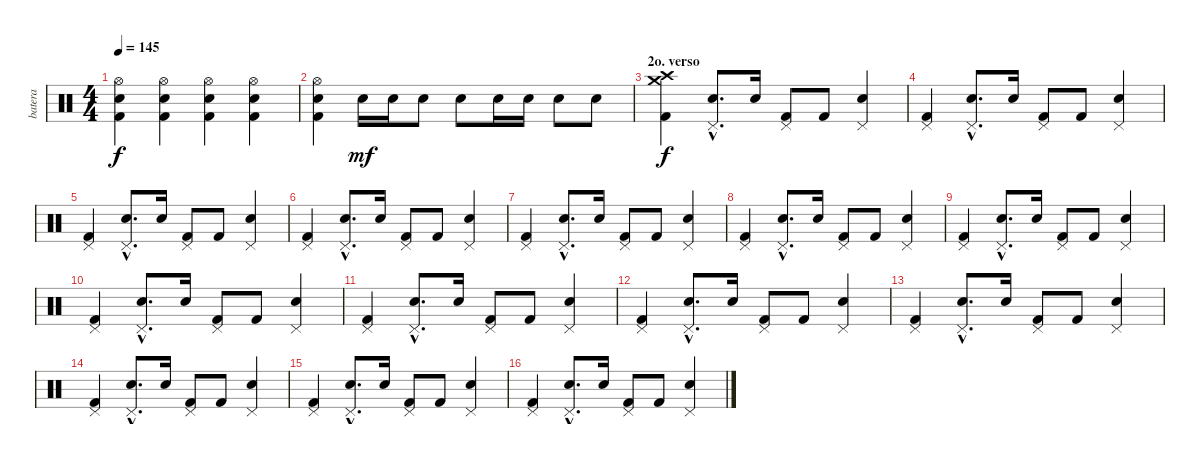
\track ("batera" "batera") {instrument percussion}
\staff {score}
\articulation defaults
\ts (4 4)
\tempo 145
\clef neutral
\ks c
("Snare (hit) 2" "Kick (hit) 2" "Hi-Hat (open)").4{dy f} ("Snare (hit) 2" "Kick (hit) 2" "Hi-Hat (open)").4 ("Snare (hit) 2" "Kick (hit) 2" "Hi-Hat (open)").4 ("Snare (hit) 2" "Kick (hit) 2" "Hi-Hat (open)").4 |
("Snare (hit) 2" "Kick (hit) 2" "Hi-Hat (open)").4 "Electric Snare (hit)".16{dy mf} "Electric Snare (hit)".16 "Electric Snare (hit)".8 "Electric Snare (hit)".8 "Electric Snare (hit)".16 "Electric Snare (hit)".16 "Electric Snare (hit)".8 "Electric Snare (hit)".8 |
\section ("" "2o. verso")
("Crash high (hit)" "Crash medium (hit)" "Kick (hit) 2").4{dy f} ("Snare (hit) 2"{hac} "Pedal Hi-Hat (hit)"{hac}).8{d} "Snare (hit) 2".16 ("Kick (hit) 2" "Pedal Hi-Hat (hit)").8 "Kick (hit) 2".8 ("Snare (hit) 2" "Pedal Hi-Hat (hit)").4 |
("Kick (hit) 2" "Pedal Hi-Hat (hit)").4 ("Snare (hit) 2"{hac} "Pedal Hi-Hat (hit)"{hac}).8{d} "Snare (hit) 2".16 ("Kick (hit) 2" "Pedal Hi-Hat (hit)").8 "Kick (hit) 2".8 ("Snare (hit) 2" "Pedal Hi-Hat (hit)").4 |
("Kick (hit) 2" "Pedal Hi-Hat (hit)").4 ("Snare (hit) 2"{hac} "Pedal Hi-Hat (hit)"{hac}).8{d} "Snare (hit) 2".16 ("Kick (hit) 2" "Pedal Hi-Hat (hit)").8 "Kick (hit) 2".8 ("Snare (hit) 2" "Pedal Hi-Hat (hit)").4 |
("Kick (hit) 2" "Pedal Hi-Hat (hit)").4 ("Snare (hit) 2"{hac} "Pedal Hi-Hat (hit)"{hac}).8{d} "Snare (hit) 2".16 ("Kick (hit) 2" "Pedal Hi-Hat (hit)").8 "Kick (hit) 2".8 ("Snare (hit) 2" "Pedal Hi-Hat (hit)").4 |
("Kick (hit) 2" "Pedal Hi-Hat (hit)").4 ("Snare (hit) 2"{hac} "Pedal Hi-Hat (hit)"{hac}).8{d} "Snare (hit) 2".16 ("Kick (hit) 2" "Pedal Hi-Hat (hit)").8 "Kick (hit) 2".8 ("Snare (hit) 2" "Pedal Hi-Hat (hit)").4 |
("Kick (hit) 2" "Pedal Hi-Hat (hit)").4 ("Snare (hit) 2"{hac} "Pedal Hi-Hat (hit)"{hac}).8{d} "Snare (hit) 2".16 ("Kick (hit) 2" "Pedal Hi-Hat (hit)").8 "Kick (hit) 2".8 ("Snare (hit) 2" "Pedal Hi-Hat (hit)").4 |
("Kick (hit) 2" "Pedal Hi-Hat (hit)").4 ("Snare (hit) 2"{hac} "Pedal Hi-Hat (hit)"{hac}).8{d} "Snare (hit) 2".16 ("Kick (hit) 2" "Pedal Hi-Hat (hit)").8 "Kick (hit) 2".8 ("Snare (hit) 2" "Pedal Hi-Hat (hit)").4 |
("Kick (hit) 2" "Pedal Hi-Hat (hit)").4 ("Snare (hit) 2"{hac} "Pedal Hi-Hat (hit)"{hac}).8{d} "Snare (hit) 2".16 ("Kick (hit) 2" "Pedal Hi-Hat (hit)").8 "Kick (hit) 2".8 ("Snare (hit) 2" "Pedal Hi-Hat (hit)").4 |
("Kick (hit) 2" "Pedal Hi-Hat (hit)").4 ("Snare (hit) 2"{hac} "Pedal Hi-Hat (hit)"{hac}).8{d} "Snare (hit) 2".16 ("Kick (hit) 2" "Pedal Hi-Hat (hit)").8 "Kick (hit) 2".8 ("Snare (hit) 2" "Pedal Hi-Hat (hit)").4 |
("Kick (hit) 2" "Pedal Hi-Hat (hit)").4 ("Snare (hit) 2"{hac} "Pedal Hi-Hat (hit)"{hac}).8{d} "Snare (hit) 2".16 ("Kick (hit) 2" "Pedal Hi-Hat (hit)").8 "Kick (hit) 2".8 ("Snare (hit) 2" "Pedal Hi-Hat (hit)").4 |
("Kick (hit) 2" "Pedal Hi-Hat (hit)").4 ("Snare (hit) 2"{hac} "Pedal Hi-Hat (hit)"{hac}).8{d} "Snare (hit) 2".16 ("Kick (hit) 2" "Pedal Hi-Hat (hit)").8 "Kick (hit) 2".8 ("Snare (hit) 2" "Pedal Hi-Hat (hit)").4 |
("Kick (hit) 2" "Pedal Hi-Hat (hit)").4 ("Snare (hit) 2"{hac} "Pedal Hi-Hat (hit)"{hac}).8{d} "Snare (hit) 2".16 ("Kick (hit) 2" "Pedal Hi-Hat (hit)").8 "Kick (hit) 2".8 ("Snare (hit) 2" "Pedal Hi-Hat (hit)").4 |
("Kick (hit) 2" "Pedal Hi-Hat (hit)").4 ("Snare (hit) 2"{hac} "Pedal Hi-Hat (hit)"{hac}).8{d} "Snare (hit) 2".16 ("Kick (hit) 2" "Pedal Hi-Hat (hit)").8 "Kick (hit) 2".8 ("Snare (hit) 2" "Pedal Hi-Hat (hit)").4 |
("Kick (hit) 2" "Pedal Hi-Hat (hit)").4 ("Snare (hit) 2"{hac} "Pedal Hi-Hat (hit)"{hac}).8{d} "Snare (hit) 2".16 ("Kick (hit) 2" "Pedal Hi-Hat (hit)").8 "Kick (hit) 2".8 ("Snare (hit) 2" "Pedal Hi-Hat (hit)").4
